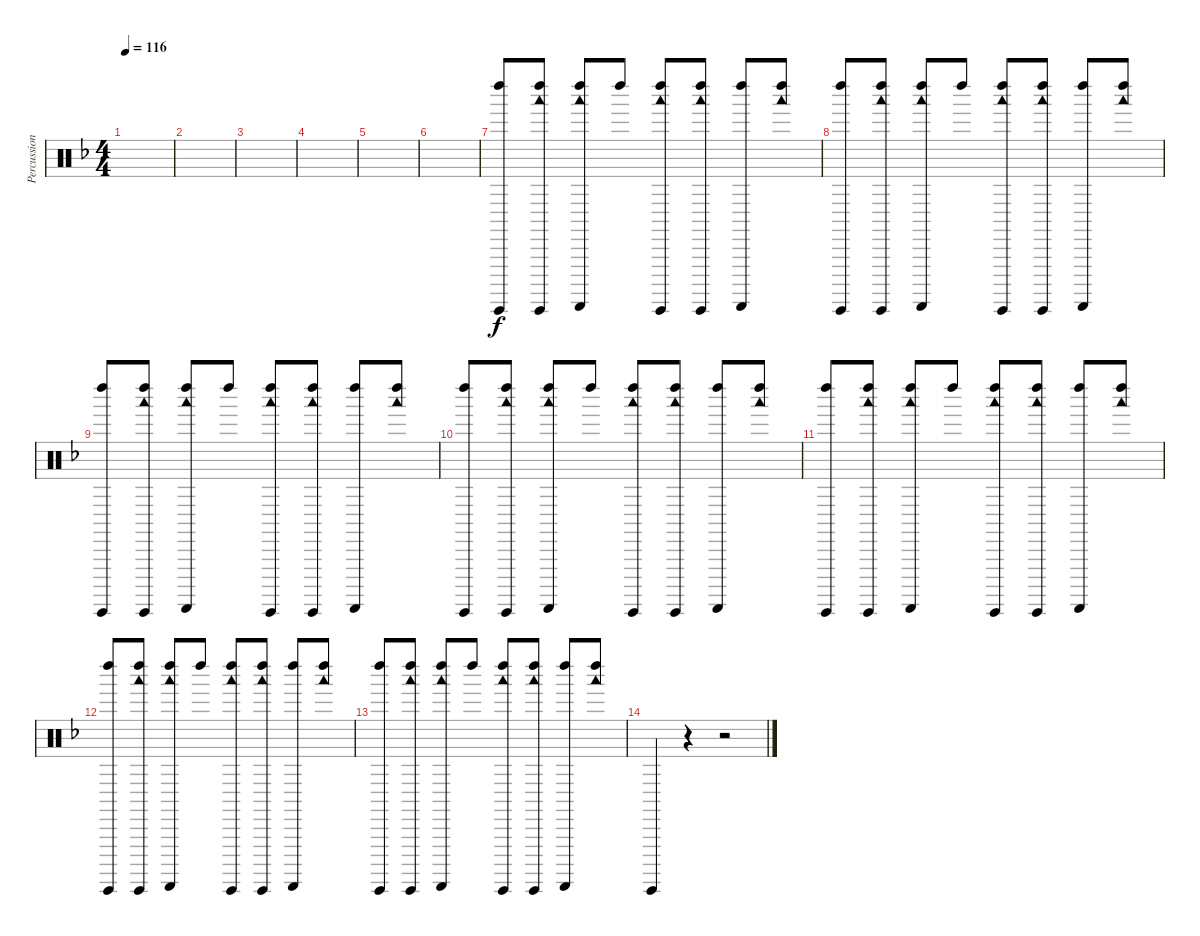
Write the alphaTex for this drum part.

\track ("Percussions" "Percussion") {instrument percussion}
\staff {score}
\articulation defaults
\ts (4 4)
\tempo 116
\clef neutral
\ks dminor
|
|
|
|
|
|
("Guiro (hit)" "Left Maraca (hit)").8 ("Guiro (hit)" "Left Maraca (hit)" "Woodblock low (hit)").8 ("Guiro (scrap-return)" "Left Maraca (hit)" "Woodblock low (hit)").8 "Left Maraca (hit)".8 ("Guiro (hit)" "Left Maraca (hit)" "Woodblock low (hit)").8 ("Guiro (hit)" "Left Maraca (hit)" "Woodblock low (hit)").8 ("Guiro (scrap-return)" "Left Maraca (hit)").8 ("Left Maraca (hit)" "Woodblock low (hit)").8 |
("Guiro (hit)" "Left Maraca (hit)").8 ("Guiro (hit)" "Left Maraca (hit)" "Woodblock low (hit)").8 ("Guiro (scrap-return)" "Left Maraca (hit)" "Woodblock low (hit)").8 "Left Maraca (hit)".8 ("Guiro (hit)" "Left Maraca (hit)" "Woodblock low (hit)").8 ("Guiro (hit)" "Left Maraca (hit)" "Woodblock low (hit)").8 ("Guiro (scrap-return)" "Left Maraca (hit)").8 ("Left Maraca (hit)" "Woodblock low (hit)").8 |
("Guiro (hit)" "Left Maraca (hit)").8 ("Guiro (hit)" "Left Maraca (hit)" "Woodblock low (hit)").8 ("Guiro (scrap-return)" "Left Maraca (hit)" "Woodblock low (hit)").8 "Left Maraca (hit)".8 ("Guiro (hit)" "Left Maraca (hit)" "Woodblock low (hit)").8 ("Guiro (hit)" "Left Maraca (hit)" "Woodblock low (hit)").8 ("Guiro (scrap-return)" "Left Maraca (hit)").8 ("Left Maraca (hit)" "Woodblock low (hit)").8 |
("Guiro (hit)" "Left Maraca (hit)").8 ("Guiro (hit)" "Left Maraca (hit)" "Woodblock low (hit)").8 ("Guiro (scrap-return)" "Left Maraca (hit)" "Woodblock low (hit)").8 "Left Maraca (hit)".8 ("Guiro (hit)" "Left Maraca (hit)" "Woodblock low (hit)").8 ("Guiro (hit)" "Left Maraca (hit)" "Woodblock low (hit)").8 ("Guiro (scrap-return)" "Left Maraca (hit)").8 ("Left Maraca (hit)" "Woodblock low (hit)").8 |
("Guiro (hit)" "Left Maraca (hit)").8 ("Guiro (hit)" "Left Maraca (hit)" "Woodblock low (hit)").8 ("Guiro (scrap-return)" "Left Maraca (hit)" "Woodblock low (hit)").8 "Left Maraca (hit)".8 ("Guiro (hit)" "Left Maraca (hit)" "Woodblock low (hit)").8 ("Guiro (hit)" "Left Maraca (hit)" "Woodblock low (hit)").8 ("Guiro (scrap-return)" "Left Maraca (hit)").8 ("Left Maraca (hit)" "Woodblock low (hit)").8 |
("Guiro (hit)" "Left Maraca (hit)").8 ("Guiro (hit)" "Left Maraca (hit)" "Woodblock low (hit)").8 ("Guiro (scrap-return)" "Left Maraca (hit)" "Woodblock low (hit)").8 "Left Maraca (hit)".8 ("Guiro (hit)" "Left Maraca (hit)" "Woodblock low (hit)").8 ("Guiro (hit)" "Left Maraca (hit)" "Woodblock low (hit)").8 ("Guiro (scrap-return)" "Left Maraca (hit)").8 ("Left Maraca (hit)" "Woodblock low (hit)").8 |
("Guiro (hit)" "Left Maraca (hit)").8 ("Guiro (hit)" "Left Maraca (hit)" "Woodblock low (hit)").8 ("Guiro (scrap-return)" "Left Maraca (hit)" "Woodblock low (hit)").8 "Left Maraca (hit)".8 ("Guiro (hit)" "Left Maraca (hit)" "Woodblock low (hit)").8 ("Guiro (hit)" "Left Maraca (hit)" "Woodblock low (hit)").8 ("Guiro (scrap-return)" "Left Maraca (hit)").8 ("Left Maraca (hit)" "Woodblock low (hit)").8 |
"Guiro (hit)".4 r.4 r.2
